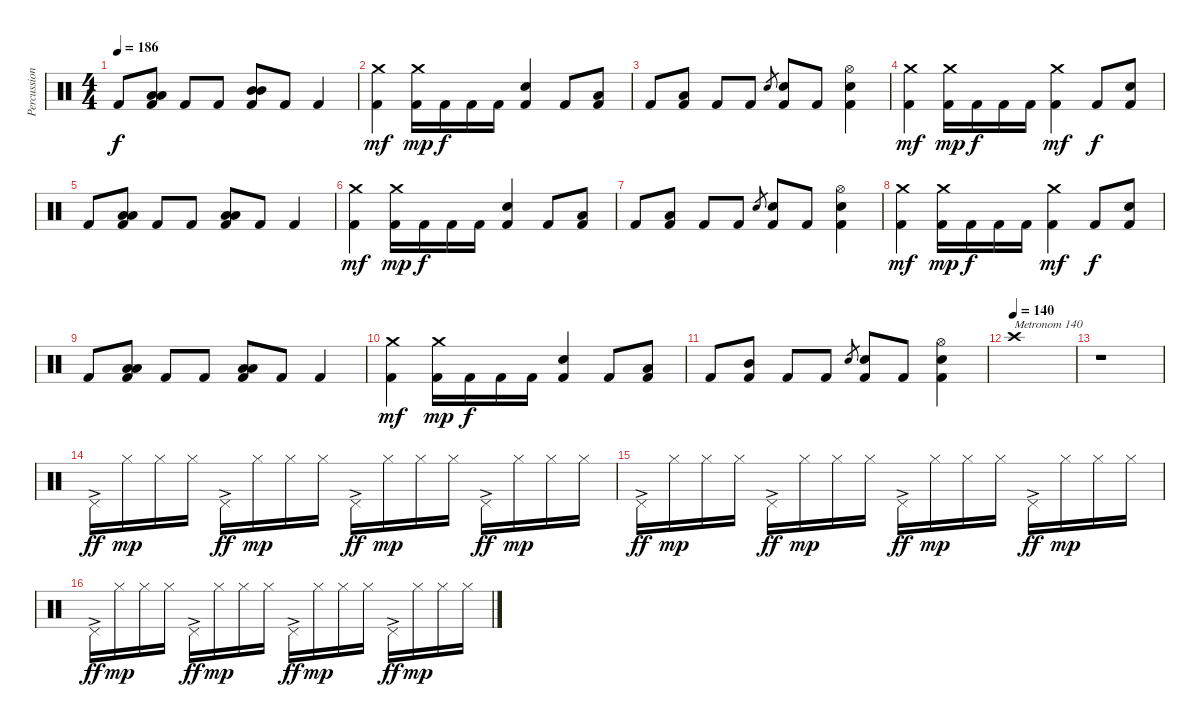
\track ("Percussion" "Percussion") {instrument percussion}
\staff {score}
\articulation defaults
\ts (4 4)
\tempo 186
\clef neutral
\ks c "Kick (hit) 2".8{dy f}
("Low Floor Tom (hit)" "Low Floor Tom (hit)" "Kick (hit) 2").8 "Kick (hit) 2".8 "Kick (hit) 2".8 ("Mid Tom (hit)" "Mid Tom (hit)" "Kick (hit) 2").8 "Kick (hit) 2".8 "Kick (hit) 2".4 |
("Crash medium (hit)" "Kick (hit) 2").4{dy mf} ("Crash medium (hit)" "Kick (hit) 2").16{dy mp} "Kick (hit) 2".16{dy f} "Kick (hit) 2".16 "Kick (hit) 2".16 ("Electric Snare (hit)" "Kick (hit) 2").4 "Kick (hit) 2".8 ("Low Floor Tom (hit)" "Kick (hit) 2").8 |
"Kick (hit) 2".8 ("Low Tom (hit)" "Kick (hit) 2").8 "Kick (hit) 2".8 "Kick (hit) 2".8 "Electric Snare (hit)".8{gr} ("Electric Snare (hit)" "Kick (hit) 2").8 "Kick (hit) 2".8 ("Hi-Hat (open)" "Electric Snare (hit)" "Kick (hit) 2").4 |
("Crash medium (hit)" "Kick (hit) 2").4{dy mf} ("Crash medium (hit)" "Kick (hit) 2").16{dy mp} "Kick (hit) 2".16{dy f} "Kick (hit) 2".16 "Kick (hit) 2".16 ("Crash medium (hit)" "Kick (hit) 2").4{dy mf} "Kick (hit) 2".8{dy f} ("Electric Snare (hit)" "Kick (hit) 2").8 |
"Kick (hit) 2".8 ("Low Floor Tom (hit)" "Low Floor Tom (hit)" "Kick (hit) 2").8 "Kick (hit) 2".8 "Kick (hit) 2".8 ("Low Tom (hit)" "Low Tom (hit)" "Kick (hit) 2").8 "Kick (hit) 2".8 "Kick (hit) 2".4 |
("Crash medium (hit)" "Kick (hit) 2").4{dy mf} ("Crash medium (hit)" "Kick (hit) 2").16{dy mp} "Kick (hit) 2".16{dy f} "Kick (hit) 2".16 "Kick (hit) 2".16 ("Electric Snare (hit)" "Kick (hit) 2").4 "Kick (hit) 2".8 ("Low Floor Tom (hit)" "Kick (hit) 2").8 |
"Kick (hit) 2".8 ("Low Tom (hit)" "Kick (hit) 2").8 "Kick (hit) 2".8 "Kick (hit) 2".8 "Electric Snare (hit)".8{gr} ("Electric Snare (hit)" "Kick (hit) 2").8 "Kick (hit) 2".8 ("Hi-Hat (open)" "Electric Snare (hit)" "Kick (hit) 2").4 |
("Crash medium (hit)" "Kick (hit) 2").4{dy mf} ("Crash medium (hit)" "Kick (hit) 2").16{dy mp} "Kick (hit) 2".16{dy f} "Kick (hit) 2".16 "Kick (hit) 2".16 ("Crash medium (hit)" "Kick (hit) 2").4{dy mf} "Kick (hit) 2".8{dy f} ("Electric Snare (hit)" "Kick (hit) 2").8 |
"Kick (hit) 2".8 ("Low Floor Tom (hit)" "Low Floor Tom (hit)" "Kick (hit) 2").8 "Kick (hit) 2".8 "Kick (hit) 2".8 ("Low Tom (hit)" "Low Tom (hit)" "Kick (hit) 2").8 "Kick (hit) 2".8 "Kick (hit) 2".4 |
("Crash medium (hit)" "Kick (hit) 2").4{dy mf} ("Crash medium (hit)" "Kick (hit) 2").16{dy mp} "Kick (hit) 2".16{dy f} "Kick (hit) 2".16 "Kick (hit) 2".16 ("Electric Snare (hit)" "Kick (hit) 2").4 "Kick (hit) 2".8 ("Low Tom (hit)" "Kick (hit) 2").8 |
"Kick (hit) 2".8 ("Mid Tom (hit)" "Kick (hit) 2").8 "Kick (hit) 2".8 "Kick (hit) 2".8 "Electric Snare (hit)".8{gr} ("Electric Snare (hit)" "Kick (hit) 2").8 "Kick (hit) 2".8 ("Hi-Hat (open)" "Electric Snare (hit)" "Kick (hit) 2").4 |
\tempo (140)
"Crash high (hit)".1{txt "Metronom 140"} |
r.1 |
"Pedal Hi-Hat (hit)"{ac}.16{dy ff} "Hi-Hat (closed)".16{dy mp} "Hi-Hat (closed)".16 "Hi-Hat (closed)".16 "Pedal Hi-Hat (hit)"{ac}.16{dy ff} "Hi-Hat (closed)".16{dy mp} "Hi-Hat (closed)".16 "Hi-Hat (closed)".16 "Pedal Hi-Hat (hit)"{ac}.16{dy ff} "Hi-Hat (closed)".16{dy mp} "Hi-Hat (closed)".16 "Hi-Hat (closed)".16 "Pedal Hi-Hat (hit)"{ac}.16{dy ff} "Hi-Hat (closed)".16{dy mp} "Hi-Hat (closed)".16 "Hi-Hat (closed)".16 |
"Pedal Hi-Hat (hit)"{ac}.16{dy ff} "Hi-Hat (closed)".16{dy mp} "Hi-Hat (closed)".16 "Hi-Hat (closed)".16 "Pedal Hi-Hat (hit)"{ac}.16{dy ff} "Hi-Hat (closed)".16{dy mp} "Hi-Hat (closed)".16 "Hi-Hat (closed)".16 "Pedal Hi-Hat (hit)"{ac}.16{dy ff} "Hi-Hat (closed)".16{dy mp} "Hi-Hat (closed)".16 "Hi-Hat (closed)".16 "Pedal Hi-Hat (hit)"{ac}.16{dy ff} "Hi-Hat (closed)".16{dy mp} "Hi-Hat (closed)".16 "Hi-Hat (closed)".16 |
"Pedal Hi-Hat (hit)"{ac}.16{dy ff} "Hi-Hat (closed)".16{dy mp} "Hi-Hat (closed)".16 "Hi-Hat (closed)".16 "Pedal Hi-Hat (hit)"{ac}.16{dy ff} "Hi-Hat (closed)".16{dy mp} "Hi-Hat (closed)".16 "Hi-Hat (closed)".16 "Pedal Hi-Hat (hit)"{ac}.16{dy ff} "Hi-Hat (closed)".16{dy mp} "Hi-Hat (closed)".16 "Hi-Hat (closed)".16 "Pedal Hi-Hat (hit)"{ac}.16{dy ff} "Hi-Hat (closed)".16{dy mp} "Hi-Hat (closed)".16 "Hi-Hat (closed)".16
